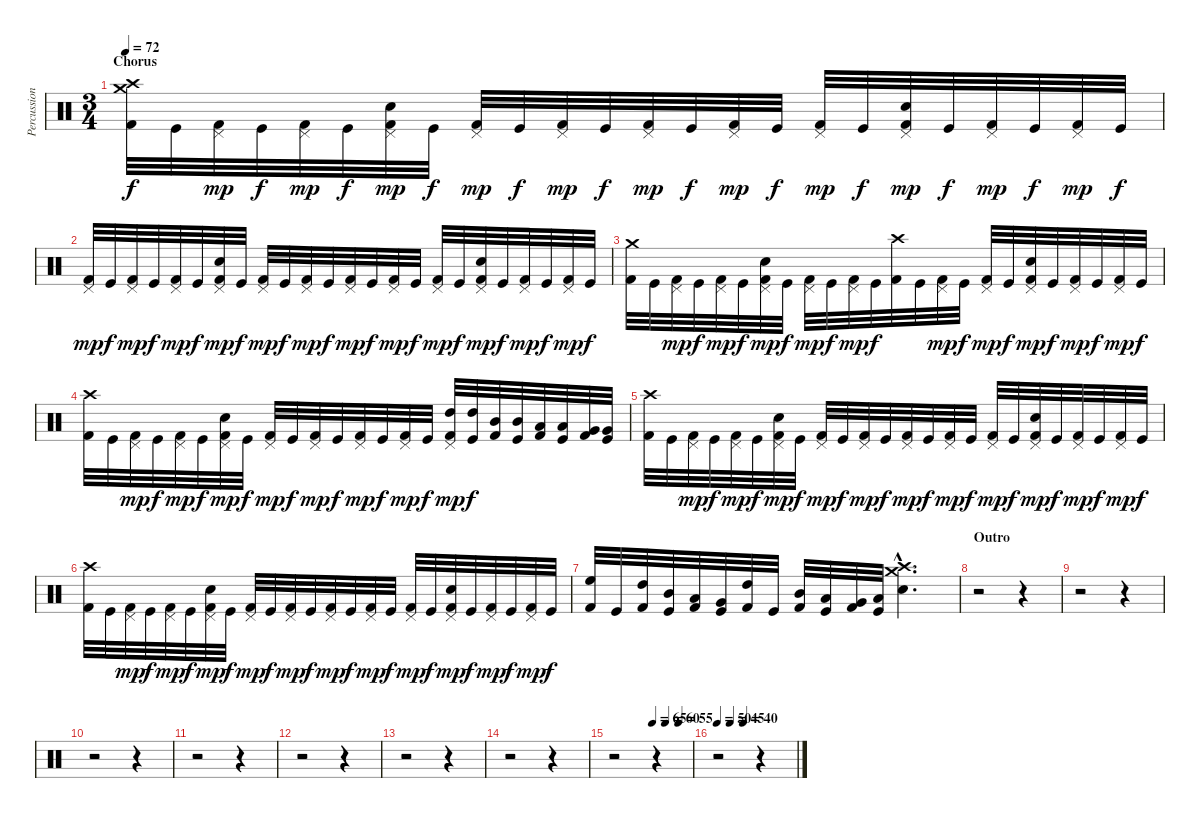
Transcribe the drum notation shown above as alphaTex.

\track ("Percussion" "Percussion") {instrument percussion}
\staff {score}
\articulation defaults
\ts (3 4)
\section ("" "Chorus")
\tempo 72
\clef neutral
\ks c
("Crash medium (hit)" "Crash high (hit)" "Kick (hit) 2").32{dy f} "Kick (hit)".32 ("Pedal Hi-Hat (hit)" "Kick (hit) 2").32{dy mp} "Kick (hit)".32{dy f} ("Pedal Hi-Hat (hit)" "Kick (hit) 2").32{dy mp} "Kick (hit)".32{dy f} ("Pedal Hi-Hat (hit)" "Electric Snare (hit)" "Kick (hit) 2").32{dy mp} "Kick (hit)".32{dy f} ("Pedal Hi-Hat (hit)" "Kick (hit) 2").32{dy mp} "Kick (hit)".32{dy f} ("Pedal Hi-Hat (hit)" "Kick (hit) 2").32{dy mp} "Kick (hit)".32{dy f} ("Pedal Hi-Hat (hit)" "Kick (hit) 2").32{dy mp} "Kick (hit)".32{dy f} ("Pedal Hi-Hat (hit)" "Kick (hit) 2").32{dy mp} "Kick (hit)".32{dy f} ("Pedal Hi-Hat (hit)" "Kick (hit) 2").32{dy mp} "Kick (hit)".32{dy f} ("Pedal Hi-Hat (hit)" "Electric Snare (hit)" "Kick (hit) 2").32{dy mp} "Kick (hit)".32{dy f} ("Pedal Hi-Hat (hit)" "Kick (hit) 2").32{dy mp} "Kick (hit)".32{dy f} ("Pedal Hi-Hat (hit)" "Kick (hit) 2").32{dy mp} "Kick (hit)".32{dy f} |
("Pedal Hi-Hat (hit)" "Kick (hit) 2").32{dy mp} "Kick (hit)".32{dy f} ("Pedal Hi-Hat (hit)" "Kick (hit) 2").32{dy mp} "Kick (hit)".32{dy f} ("Pedal Hi-Hat (hit)" "Kick (hit) 2").32{dy mp} "Kick (hit)".32{dy f} ("Pedal Hi-Hat (hit)" "Electric Snare (hit)" "Kick (hit) 2").32{dy mp} "Kick (hit)".32{dy f} ("Pedal Hi-Hat (hit)" "Kick (hit) 2").32{dy mp} "Kick (hit)".32{dy f} ("Pedal Hi-Hat (hit)" "Kick (hit) 2").32{dy mp} "Kick (hit)".32{dy f} ("Pedal Hi-Hat (hit)" "Kick (hit) 2").32{dy mp} "Kick (hit)".32{dy f} ("Pedal Hi-Hat (hit)" "Kick (hit) 2").32{dy mp} "Kick (hit)".32{dy f} ("Pedal Hi-Hat (hit)" "Kick (hit) 2").32{dy mp} "Kick (hit)".32{dy f} ("Pedal Hi-Hat (hit)" "Electric Snare (hit)" "Kick (hit) 2").32{dy mp} "Kick (hit)".32{dy f} ("Pedal Hi-Hat (hit)" "Kick (hit) 2").32{dy mp} "Kick (hit)".32{dy f} ("Pedal Hi-Hat (hit)" "Kick (hit) 2").32{dy mp} "Kick (hit)".32{dy f} |
("Crash medium (hit)" "Kick (hit) 2").32 "Kick (hit)".32 ("Pedal Hi-Hat (hit)" "Kick (hit) 2").32{dy mp} "Kick (hit)".32{dy f} ("Pedal Hi-Hat (hit)" "Kick (hit) 2").32{dy mp} "Kick (hit)".32{dy f} ("Pedal Hi-Hat (hit)" "Electric Snare (hit)" "Kick (hit) 2").32{dy mp} "Kick (hit)".32{dy f} ("Pedal Hi-Hat (hit)" "Kick (hit) 2").32{dy mp} "Kick (hit)".32{dy f} ("Pedal Hi-Hat (hit)" "Kick (hit) 2").32{dy mp} "Kick (hit)".32{dy f} ("Crash high (hit)" "Kick (hit) 2").32 "Kick (hit)".32 ("Pedal Hi-Hat (hit)" "Kick (hit) 2").32{dy mp} "Kick (hit)".32{dy f} ("Pedal Hi-Hat (hit)" "Kick (hit) 2").32{dy mp} "Kick (hit)".32{dy f} ("Pedal Hi-Hat (hit)" "Electric Snare (hit)" "Kick (hit) 2").32{dy mp} "Kick (hit)".32{dy f} ("Pedal Hi-Hat (hit)" "Kick (hit) 2").32{dy mp} "Kick (hit)".32{dy f} ("Pedal Hi-Hat (hit)" "Kick (hit) 2").32{dy mp} "Kick (hit)".32{dy f} |
("Crash high (hit)" "Kick (hit) 2").32 "Kick (hit)".32 ("Pedal Hi-Hat (hit)" "Kick (hit) 2").32{dy mp} "Kick (hit)".32{dy f} ("Pedal Hi-Hat (hit)" "Kick (hit) 2").32{dy mp} "Kick (hit)".32{dy f} ("Pedal Hi-Hat (hit)" "Electric Snare (hit)" "Kick (hit) 2").32{dy mp} "Kick (hit)".32{dy f} ("Pedal Hi-Hat (hit)" "Kick (hit) 2").32{dy mp} "Kick (hit)".32{dy f} ("Pedal Hi-Hat (hit)" "Kick (hit) 2").32{dy mp} "Kick (hit)".32{dy f} ("Pedal Hi-Hat (hit)" "Kick (hit) 2").32{dy mp} "Kick (hit)".32{dy f} ("Pedal Hi-Hat (hit)" "Kick (hit) 2").32{dy mp} "Kick (hit)".32{dy f} ("Pedal Hi-Hat (hit)" "High Tom (hit)" "Kick (hit) 2").32{dy mp} ("High Tom (hit)" "Kick (hit)").32{dy f} ("Mid Tom (hit)" "Kick (hit) 2").32 ("Mid Tom (hit)" "Kick (hit)").32 ("Low Tom (hit)" "Kick (hit) 2").32 ("Low Tom (hit)" "Kick (hit)").32 ("Very Low Tom (hit)" "Kick (hit) 2").32 ("Very Low Tom (hit)" "Kick (hit)").32 |
("Crash high (hit)" "Kick (hit) 2").32 "Kick (hit)".32 ("Pedal Hi-Hat (hit)" "Kick (hit) 2").32{dy mp} "Kick (hit)".32{dy f} ("Pedal Hi-Hat (hit)" "Kick (hit) 2").32{dy mp} "Kick (hit)".32{dy f} ("Pedal Hi-Hat (hit)" "Electric Snare (hit)" "Kick (hit) 2").32{dy mp} "Kick (hit)".32{dy f} ("Pedal Hi-Hat (hit)" "Kick (hit) 2").32{dy mp} "Kick (hit)".32{dy f} ("Pedal Hi-Hat (hit)" "Kick (hit) 2").32{dy mp} "Kick (hit)".32{dy f} ("Pedal Hi-Hat (hit)" "Kick (hit) 2").32{dy mp} "Kick (hit)".32{dy f} ("Pedal Hi-Hat (hit)" "Kick (hit) 2").32{dy mp} "Kick (hit)".32{dy f} ("Pedal Hi-Hat (hit)" "Kick (hit) 2").32{dy mp} "Kick (hit)".32{dy f} ("Pedal Hi-Hat (hit)" "Electric Snare (hit)" "Kick (hit) 2").32{dy mp} "Kick (hit)".32{dy f} ("Pedal Hi-Hat (hit)" "Kick (hit) 2").32{dy mp} "Kick (hit)".32{dy f} ("Pedal Hi-Hat (hit)" "Kick (hit) 2").32{dy mp} "Kick (hit)".32{dy f} |
("Crash high (hit)" "Kick (hit) 2").32 "Kick (hit)".32 ("Pedal Hi-Hat (hit)" "Kick (hit) 2").32{dy mp} "Kick (hit)".32{dy f} ("Pedal Hi-Hat (hit)" "Kick (hit) 2").32{dy mp} "Kick (hit)".32{dy f} ("Pedal Hi-Hat (hit)" "Electric Snare (hit)" "Kick (hit) 2").32{dy mp} "Kick (hit)".32{dy f} ("Pedal Hi-Hat (hit)" "Kick (hit) 2").32{dy mp} "Kick (hit)".32{dy f} ("Pedal Hi-Hat (hit)" "Kick (hit) 2").32{dy mp} "Kick (hit)".32{dy f} ("Pedal Hi-Hat (hit)" "Kick (hit) 2").32{dy mp} "Kick (hit)".32{dy f} ("Pedal Hi-Hat (hit)" "Kick (hit) 2").32{dy mp} "Kick (hit)".32{dy f} ("Pedal Hi-Hat (hit)" "Kick (hit) 2").32{dy mp} "Kick (hit)".32{dy f} ("Pedal Hi-Hat (hit)" "Electric Snare (hit)" "Kick (hit) 2").32{dy mp} "Kick (hit)".32{dy f} ("Pedal Hi-Hat (hit)" "Kick (hit) 2").32{dy mp} "Kick (hit)".32{dy f} ("Pedal Hi-Hat (hit)" "Kick (hit) 2").32{dy mp} "Kick (hit)".32{dy f} |
("High Floor Tom (hit)" "Kick (hit) 2").32 "Kick (hit)".32 ("High Tom (hit)" "Kick (hit) 2").32 ("Mid Tom (hit)" "Kick (hit)").32 ("Low Tom (hit)" "Kick (hit) 2").32 ("Very Low Tom (hit)" "Kick (hit)").32 ("High Tom (hit)" "Kick (hit) 2").32 "Kick (hit)".32 ("Mid Tom (hit)" "Kick (hit) 2").32 ("Low Tom (hit)" "Kick (hit)").32 ("Very Low Tom (hit)" "Kick (hit) 2").32 ("Low Floor Tom (hit)" "Kick (hit)").32 ("Crash medium (hit)"{hac} "Crash high (hit)"{hac} "Electric Snare (hit)"{hac}).4{d} |
\section ("" "Outro")
r.2 r.4 |
r.2 r.4 |
r.2 r.4 |
r.2 r.4 |
r.2 r.4 |
r.2 r.4 |
r.2 r.4 |
\tempo (65 0.5)
\tempo (60 0.6666666666666666)
\tempo (55 0.8333333333333334)
r.2 r.4 |
\tempo 50
\tempo (45 0.16666666666666666)
\tempo (40 0.3333333333333333)
r.2 r.4
